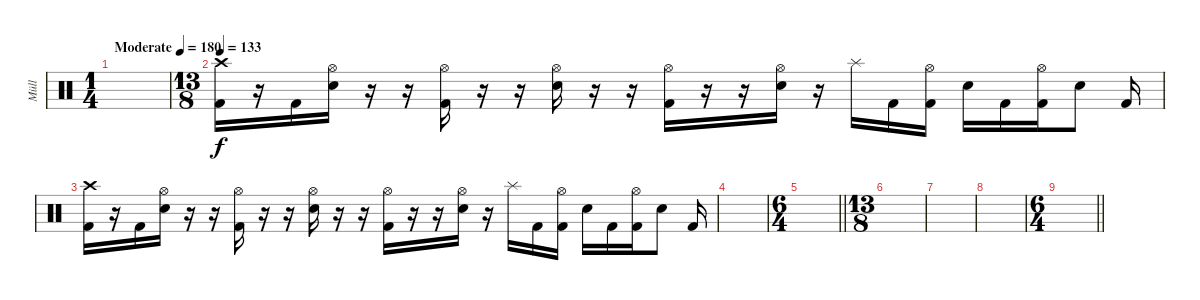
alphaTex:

\track ("Müll" "Müll") {mute instrument percussion}
\staff
\articulation defaults
\ts (1 4)
\tempo (180 "Moderate")
\clef neutral
\ks c
|
\ts (13 8)
\tempo 133
("Crash high (hit)" "Kick (hit) 2").16 r.16 "Kick (hit) 2".16 ("Hi-Hat (open)" "Electric Snare (hit)").16 r.16 r.16 ("Hi-Hat (open)" "Kick (hit) 2").16 r.16 r.16 ("Hi-Hat (open)" "Electric Snare (hit)").16 r.16 r.16 ("Hi-Hat (open)" "Kick (hit) 2").16 r.16 r.16 ("Hi-Hat (open)" "Electric Snare (hit)").16 r.16 "Splash (hit)".16 "Kick (hit) 2".16 ("Hi-Hat (open)" "Kick (hit) 2").16 "Electric Snare (hit)".16 "Kick (hit) 2".16 ("Hi-Hat (open)" "Kick (hit) 2").16 "Electric Snare (hit)".8 "Kick (hit) 2".16 |
("Crash high (hit)" "Kick (hit) 2").16 r.16 "Kick (hit) 2".16 ("Hi-Hat (open)" "Electric Snare (hit)").16 r.16 r.16 ("Hi-Hat (open)" "Kick (hit) 2").16 r.16 r.16 ("Hi-Hat (open)" "Electric Snare (hit)").16 r.16 r.16 ("Hi-Hat (open)" "Kick (hit) 2").16 r.16 r.16 ("Hi-Hat (open)" "Electric Snare (hit)").16 r.16 "Splash (hit)".16 "Kick (hit) 2".16 ("Hi-Hat (open)" "Kick (hit) 2").16 "Electric Snare (hit)".16 "Kick (hit) 2".16 ("Hi-Hat (open)" "Kick (hit) 2").16 "Electric Snare (hit)".8 "Kick (hit) 2".16 |
|
\ts (6 4)
\barLineRight lightlight
|
\ts (13 8)
|
|
|
\ts (6 4)
\barLineRight lightlight
